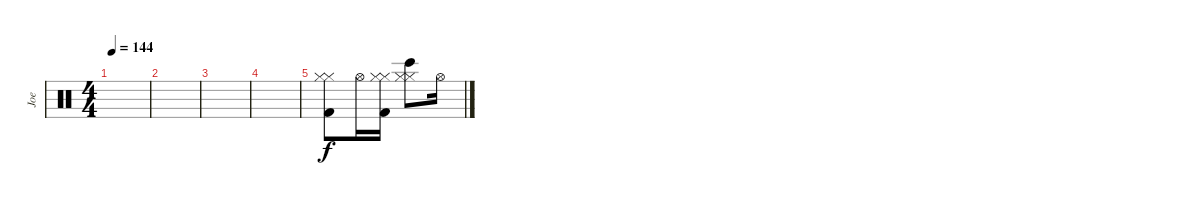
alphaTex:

\track ("Joe" "Joe") {instrument percussion}
\staff {score}
\articulation defaults
\ts (4 4)
\tempo 144
\clef neutral
\ks c
|
|
|
|
("Hi-Hat (closed)" "Hi-Hat (closed)" "Kick (hit) 2").8 "Hi-Hat (open)".16 ("Hi-Hat (closed)" "Hi-Hat (closed)" "Kick (hit) 2").16 ("Hi-Hat (closed)" "Hi-Hat (closed)" "Bongo High (hit)").8 "Hi-Hat (open)".16
